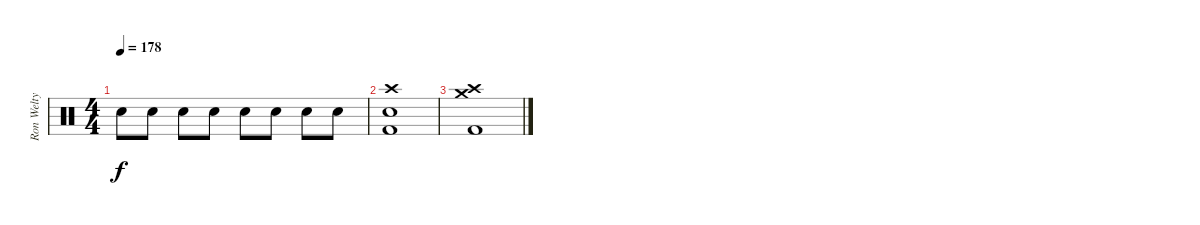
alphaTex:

\track ("Ron Welty (Drums)" "Ron Welty ") {instrument percussion}
\staff {score}
\articulation defaults
\ts (4 4)
\tempo 178
\clef neutral
\ks c "Electric Snare (hit)".8{dy f} "Electric Snare (hit)".8 "Electric Snare (hit)".8 "Electric Snare (hit)".8 "Electric Snare (hit)".8 "Electric Snare (hit)".8 "Electric Snare (hit)".8 "Electric Snare (hit)".8
|
("Crash high (hit)" "Electric Snare (hit)" "Kick (hit) 2").1 |
("Crash medium (hit)" "Crash high (hit)" "Kick (hit) 2").1
